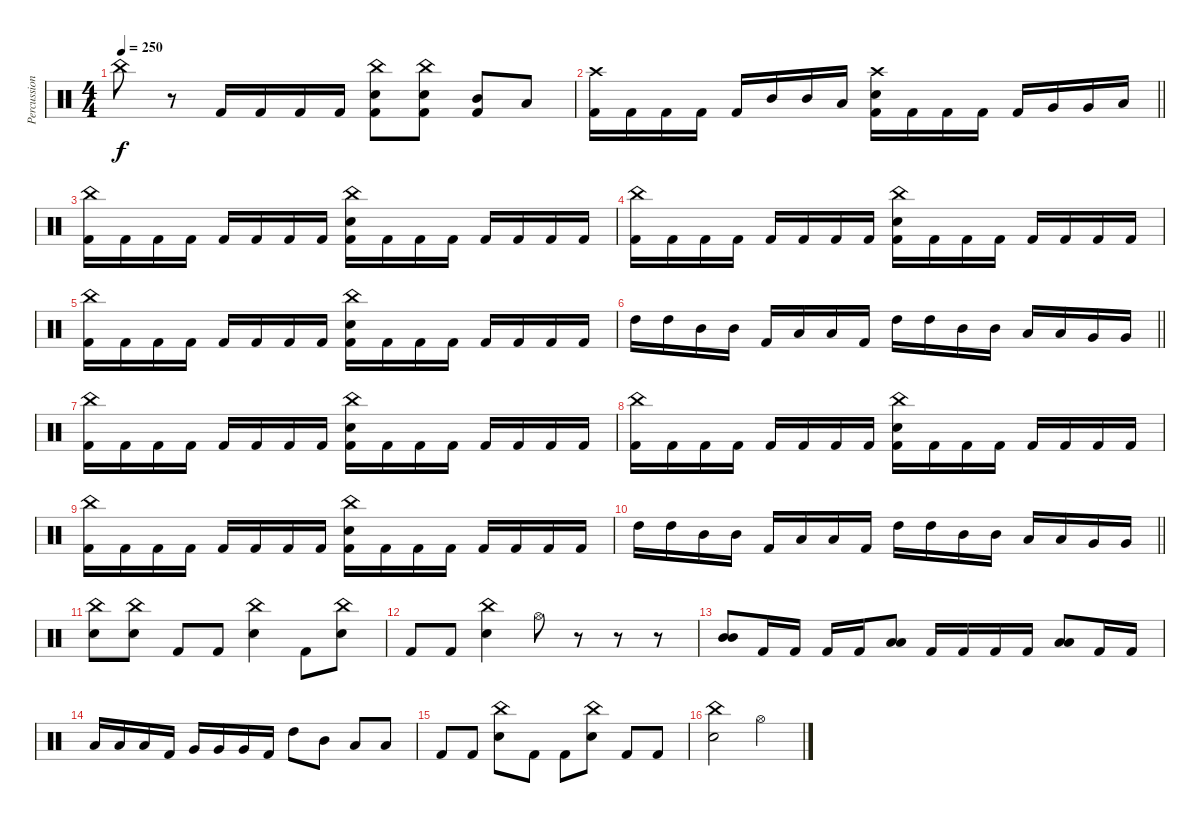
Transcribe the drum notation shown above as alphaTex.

\track ("Percussions" "Percussion") {instrument percussion}
\staff {score}
\articulation defaults
\ts (4 4)
\tempo 250
\clef neutral
\ks c "China (hit)".8{dy f}
r.8 "Kick (hit) 2".16 "Kick (hit) 2".16 "Kick (hit) 2".16 "Kick (hit) 2".16 ("China (hit)" "Electric Snare (hit)" "Kick (hit) 2").8 ("China (hit)" "Electric Snare (hit)" "Kick (hit) 2").8 ("Mid Tom (hit)" "Kick (hit) 2").8 "Low Tom (hit)".8 |
\barLineRight lightlight
("Crash high (hit)" "Kick (hit) 2").16 "Kick (hit) 2".16 "Kick (hit) 2".16 "Kick (hit) 2".16 "Kick (hit) 2".16 "Mid Tom (hit)".16 "Mid Tom (hit)".16 "Low Tom (hit)".16 ("Crash high (hit)" "Electric Snare (hit)" "Kick (hit) 2").16 "Kick (hit) 2".16 "Kick (hit) 2".16 "Kick (hit) 2".16 "Kick (hit) 2".16 "Very Low Tom (hit)".16 "Very Low Tom (hit)".16 "Low Floor Tom (hit)".16 |
("China (hit)" "Kick (hit) 2").16 "Kick (hit) 2".16 "Kick (hit) 2".16 "Kick (hit) 2".16 "Kick (hit) 2".16 "Kick (hit) 2".16 "Kick (hit) 2".16 "Kick (hit) 2".16 ("China (hit)" "Electric Snare (hit)" "Kick (hit) 2").16 "Kick (hit) 2".16 "Kick (hit) 2".16 "Kick (hit) 2".16 "Kick (hit) 2".16 "Kick (hit) 2".16 "Kick (hit) 2".16 "Kick (hit) 2".16 |
("China (hit)" "Kick (hit) 2").16 "Kick (hit) 2".16 "Kick (hit) 2".16 "Kick (hit) 2".16 "Kick (hit) 2".16 "Kick (hit) 2".16 "Kick (hit) 2".16 "Kick (hit) 2".16 ("China (hit)" "Electric Snare (hit)" "Kick (hit) 2").16 "Kick (hit) 2".16 "Kick (hit) 2".16 "Kick (hit) 2".16 "Kick (hit) 2".16 "Kick (hit) 2".16 "Kick (hit) 2".16 "Kick (hit) 2".16 |
("China (hit)" "Kick (hit) 2").16 "Kick (hit) 2".16 "Kick (hit) 2".16 "Kick (hit) 2".16 "Kick (hit) 2".16 "Kick (hit) 2".16 "Kick (hit) 2".16 "Kick (hit) 2".16 ("China (hit)" "Electric Snare (hit)" "Kick (hit) 2").16 "Kick (hit) 2".16 "Kick (hit) 2".16 "Kick (hit) 2".16 "Kick (hit) 2".16 "Kick (hit) 2".16 "Kick (hit) 2".16 "Kick (hit) 2".16 |
\barLineRight lightlight "High Tom (hit)".16 "High Tom (hit)".16 "Mid Tom (hit)".16 "Mid Tom (hit)".16 "Kick (hit) 2".16 "Low Tom (hit)".16 "Low Tom (hit)".16 "Kick (hit) 2".16 "High Tom (hit)".16 "High Tom (hit)".16 "Mid Tom (hit)".16 "Mid Tom (hit)".16 "Low Tom (hit)".16 "Low Tom (hit)".16 "Very Low Tom (hit)".16 "Very Low Tom (hit)".16
|
("China (hit)" "Kick (hit) 2").16 "Kick (hit) 2".16 "Kick (hit) 2".16 "Kick (hit) 2".16 "Kick (hit) 2".16 "Kick (hit) 2".16 "Kick (hit) 2".16 "Kick (hit) 2".16 ("China (hit)" "Electric Snare (hit)" "Kick (hit) 2").16 "Kick (hit) 2".16 "Kick (hit) 2".16 "Kick (hit) 2".16 "Kick (hit) 2".16 "Kick (hit) 2".16 "Kick (hit) 2".16 "Kick (hit) 2".16 |
("China (hit)" "Kick (hit) 2").16 "Kick (hit) 2".16 "Kick (hit) 2".16 "Kick (hit) 2".16 "Kick (hit) 2".16 "Kick (hit) 2".16 "Kick (hit) 2".16 "Kick (hit) 2".16 ("China (hit)" "Electric Snare (hit)" "Kick (hit) 2").16 "Kick (hit) 2".16 "Kick (hit) 2".16 "Kick (hit) 2".16 "Kick (hit) 2".16 "Kick (hit) 2".16 "Kick (hit) 2".16 "Kick (hit) 2".16 |
("China (hit)" "Kick (hit) 2").16 "Kick (hit) 2".16 "Kick (hit) 2".16 "Kick (hit) 2".16 "Kick (hit) 2".16 "Kick (hit) 2".16 "Kick (hit) 2".16 "Kick (hit) 2".16 ("China (hit)" "Electric Snare (hit)" "Kick (hit) 2").16 "Kick (hit) 2".16 "Kick (hit) 2".16 "Kick (hit) 2".16 "Kick (hit) 2".16 "Kick (hit) 2".16 "Kick (hit) 2".16 "Kick (hit) 2".16 |
\barLineRight lightlight "High Tom (hit)".16 "High Tom (hit)".16 "Mid Tom (hit)".16 "Mid Tom (hit)".16 "Kick (hit) 2".16 "Low Tom (hit)".16 "Low Tom (hit)".16 "Kick (hit) 2".16 "High Tom (hit)".16 "High Tom (hit)".16 "Mid Tom (hit)".16 "Mid Tom (hit)".16 "Low Tom (hit)".16 "Low Tom (hit)".16 "Very Low Tom (hit)".16 "Very Low Tom (hit)".16
|
("China (hit)" "Electric Snare (hit)").8 ("China (hit)" "Electric Snare (hit)").8 "Kick (hit) 2".8 "Kick (hit) 2".8 ("China (hit)" "Electric Snare (hit)").4 "Kick (hit) 2".8 ("China (hit)" "Electric Snare (hit)").8 |
"Kick (hit) 2".8 "Kick (hit) 2".8 ("China (hit)" "Electric Snare (hit)").4 "Hi-Hat (open)".8 r.8 r.8 r.8 |
("Mid Tom (hit)" "Mid Tom (hit)").8 "Kick (hit) 2".16 "Kick (hit) 2".16 "Kick (hit) 2".16 "Kick (hit) 2".16 ("Low Tom (hit)" "Low Tom (hit)").8 "Kick (hit) 2".16 "Kick (hit) 2".16 "Kick (hit) 2".16 "Kick (hit) 2".16 ("Low Floor Tom (hit)" "Low Floor Tom (hit)").8 "Kick (hit) 2".16 "Kick (hit) 2".16 |
"Low Tom (hit)".16 "Low Tom (hit)".16 "Low Tom (hit)".16 "Kick (hit) 2".16 "Very Low Tom (hit)".16 "Very Low Tom (hit)".16 "Very Low Tom (hit)".16 "Kick (hit) 2".16 "High Tom (hit)".8 "Mid Tom (hit)".8 "Low Tom (hit)".8 "Low Floor Tom (hit)".8 |
"Kick (hit) 2".8 "Kick (hit) 2".8 ("China (hit)" "Electric Snare (hit)").8 "Kick (hit) 2".8 "Kick (hit) 2".8 ("China (hit)" "Electric Snare (hit)").8 "Kick (hit) 2".8 "Kick (hit) 2".8 |
("China (hit)" "Electric Snare (hit)").2 "Hi-Hat (open)".2
